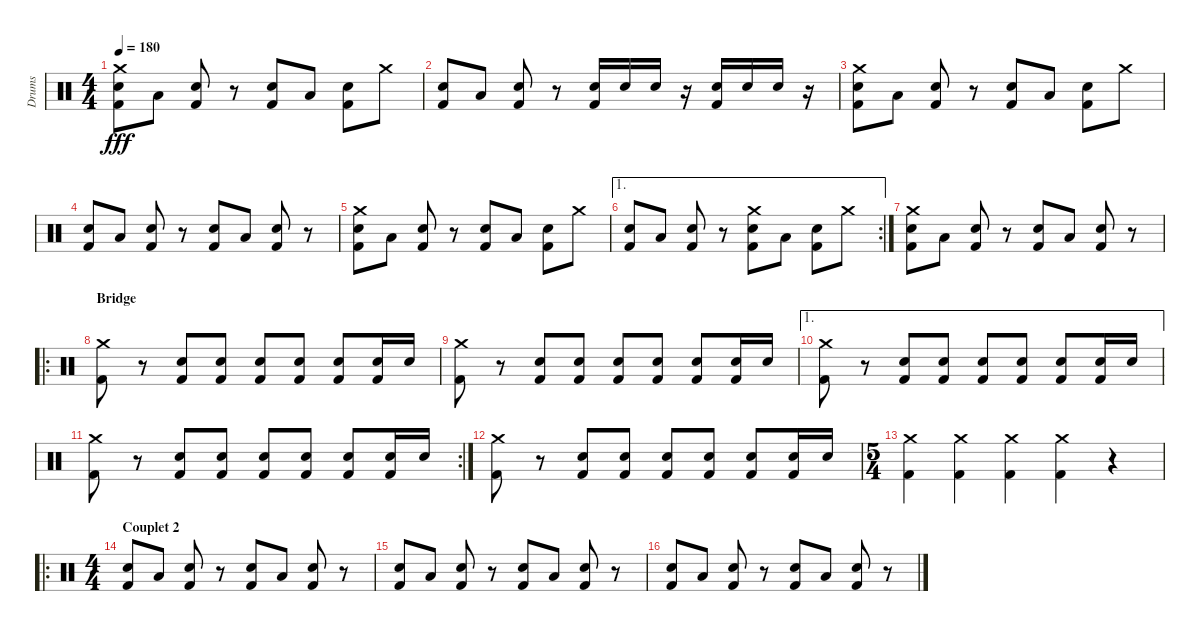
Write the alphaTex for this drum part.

\track ("Drums" "Drums") {instrument percussion}
\staff {score}
\articulation defaults
\ts (4 4)
\tempo 180
\clef neutral
\ks c
("Crash medium (hit)" "Snare (hit) 2" "Kick (hit) 2").8{dy fff} "Low Floor Tom (hit)".8 ("Snare (hit) 2" "Kick (hit) 2").8 r.8 ("Snare (hit) 2" "Kick (hit) 2").8 "Low Floor Tom (hit)".8 ("Snare (hit) 2" "Kick (hit) 2").8 "Crash medium (hit)".8 |
("Snare (hit) 2" "Kick (hit) 2").8 "Low Floor Tom (hit)".8 ("Snare (hit) 2" "Kick (hit) 2").8 r.8 ("Snare (hit) 2" "Kick (hit) 2").16 "Snare (hit) 2".16 "Snare (hit) 2".16 r.16 ("Snare (hit) 2" "Kick (hit) 2").16 "Snare (hit) 2".16 "Snare (hit) 2".16 r.16 |
("Crash medium (hit)" "Snare (hit) 2" "Kick (hit) 2").8 "Low Floor Tom (hit)".8 ("Snare (hit) 2" "Kick (hit) 2").8 r.8 ("Snare (hit) 2" "Kick (hit) 2").8 "Low Floor Tom (hit)".8 ("Snare (hit) 2" "Kick (hit) 2").8 "Crash medium (hit)".8 |
("Snare (hit) 2" "Kick (hit) 2").8 "Low Floor Tom (hit)".8 ("Snare (hit) 2" "Kick (hit) 2").8 r.8 ("Snare (hit) 2" "Kick (hit) 2").8 "Low Floor Tom (hit)".8 ("Snare (hit) 2" "Kick (hit) 2").8 r.8 |
("Crash medium (hit)" "Snare (hit) 2" "Kick (hit) 2").8 "Low Floor Tom (hit)".8 ("Snare (hit) 2" "Kick (hit) 2").8 r.8 ("Snare (hit) 2" "Kick (hit) 2").8 "Low Floor Tom (hit)".8 ("Snare (hit) 2" "Kick (hit) 2").8 "Crash medium (hit)".8 |
\ae 1
\rc 2
("Snare (hit) 2" "Kick (hit) 2").8 "Low Floor Tom (hit)".8 ("Snare (hit) 2" "Kick (hit) 2").8 r.8 ("Crash medium (hit)" "Snare (hit) 2" "Kick (hit) 2").8 "Low Floor Tom (hit)".8 ("Snare (hit) 2" "Kick (hit) 2").8 "Crash medium (hit)".8 |
("Crash medium (hit)" "Snare (hit) 2" "Kick (hit) 2").8 "Low Floor Tom (hit)".8 ("Snare (hit) 2" "Kick (hit) 2").8 r.8 ("Snare (hit) 2" "Kick (hit) 2").8 "Low Floor Tom (hit)".8 ("Snare (hit) 2" "Kick (hit) 2").8 r.8 |
\ro
\section ("" "Bridge")
("Crash medium (hit)" "Kick (hit) 2").8 r.8 ("Snare (hit) 2" "Kick (hit) 2").8 ("Snare (hit) 2" "Kick (hit) 2").8 ("Snare (hit) 2" "Kick (hit) 2").8 ("Snare (hit) 2" "Kick (hit) 2").8 ("Snare (hit) 2" "Kick (hit) 2").8 ("Snare (hit) 2" "Kick (hit) 2").16 "Snare (hit) 2".16 |
("Crash medium (hit)" "Kick (hit) 2").8 r.8 ("Snare (hit) 2" "Kick (hit) 2").8 ("Snare (hit) 2" "Kick (hit) 2").8 ("Snare (hit) 2" "Kick (hit) 2").8 ("Snare (hit) 2" "Kick (hit) 2").8 ("Snare (hit) 2" "Kick (hit) 2").8 ("Snare (hit) 2" "Kick (hit) 2").16 "Snare (hit) 2".16 |
\ae 1
("Crash medium (hit)" "Kick (hit) 2").8 r.8 ("Snare (hit) 2" "Kick (hit) 2").8 ("Snare (hit) 2" "Kick (hit) 2").8 ("Snare (hit) 2" "Kick (hit) 2").8 ("Snare (hit) 2" "Kick (hit) 2").8 ("Snare (hit) 2" "Kick (hit) 2").8 ("Snare (hit) 2" "Kick (hit) 2").16 "Snare (hit) 2".16 |
\rc 2
("Crash medium (hit)" "Kick (hit) 2").8 r.8 ("Snare (hit) 2" "Kick (hit) 2").8 ("Snare (hit) 2" "Kick (hit) 2").8 ("Snare (hit) 2" "Kick (hit) 2").8 ("Snare (hit) 2" "Kick (hit) 2").8 ("Snare (hit) 2" "Kick (hit) 2").8 ("Snare (hit) 2" "Kick (hit) 2").16 "Snare (hit) 2".16 |
("Crash medium (hit)" "Kick (hit) 2").8 r.8 ("Snare (hit) 2" "Kick (hit) 2").8 ("Snare (hit) 2" "Kick (hit) 2").8 ("Snare (hit) 2" "Kick (hit) 2").8 ("Snare (hit) 2" "Kick (hit) 2").8 ("Snare (hit) 2" "Kick (hit) 2").8 ("Snare (hit) 2" "Kick (hit) 2").16 "Snare (hit) 2".16 |
\ts (5 4)
("Crash medium (hit)" "Kick (hit) 2").4 ("Crash medium (hit)" "Kick (hit) 2").4 ("Crash medium (hit)" "Kick (hit) 2").4 ("Crash medium (hit)" "Kick (hit) 2").4 r.4 |
\ro
\ts (4 4)
\section ("" "Couplet 2")
("Snare (hit) 2" "Kick (hit) 2").8 "Low Floor Tom (hit)".8 ("Snare (hit) 2" "Kick (hit) 2").8 r.8 ("Snare (hit) 2" "Kick (hit) 2").8 "Low Floor Tom (hit)".8 ("Snare (hit) 2" "Kick (hit) 2").8 r.8 |
("Snare (hit) 2" "Kick (hit) 2").8 "Low Floor Tom (hit)".8 ("Snare (hit) 2" "Kick (hit) 2").8 r.8 ("Snare (hit) 2" "Kick (hit) 2").8 "Low Floor Tom (hit)".8 ("Snare (hit) 2" "Kick (hit) 2").8 r.8 |
("Snare (hit) 2" "Kick (hit) 2").8 "Low Floor Tom (hit)".8 ("Snare (hit) 2" "Kick (hit) 2").8 r.8 ("Snare (hit) 2" "Kick (hit) 2").8 "Low Floor Tom (hit)".8 ("Snare (hit) 2" "Kick (hit) 2").8 r.8
